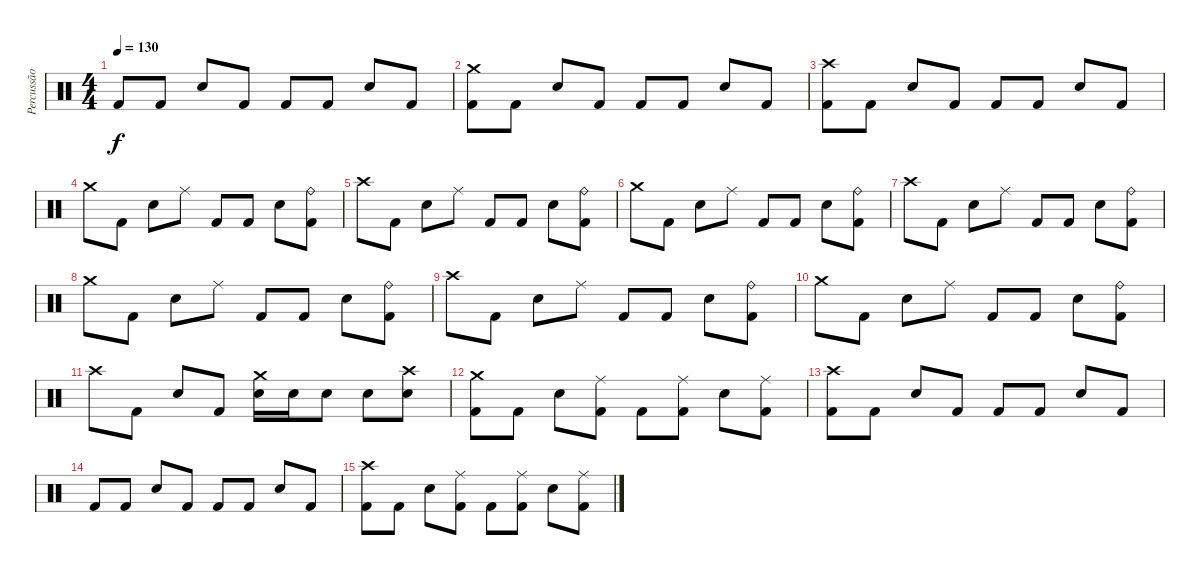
\track ("Percussão" "Percussão") {instrument percussion}
\staff {score}
\articulation defaults
\ts (4 4)
\tempo 130
\clef neutral
\ks c "Kick (hit) 2".8{dy f} "Kick (hit) 2".8 "Snare (hit) 2".8 "Kick (hit) 2".8 "Kick (hit) 2".8 "Kick (hit) 2".8 "Snare (hit) 2".8 "Kick (hit) 2".8
|
("Kick (hit) 2" "Crash medium (hit)").8 "Kick (hit) 2".8 "Snare (hit) 2".8 "Kick (hit) 2".8 "Kick (hit) 2".8 "Kick (hit) 2".8 "Snare (hit) 2".8 "Kick (hit) 2".8 |
("Kick (hit) 2" "Crash high (hit)").8 "Kick (hit) 2".8 "Snare (hit) 2".8 "Kick (hit) 2".8 "Kick (hit) 2".8 "Kick (hit) 2".8 "Snare (hit) 2".8 "Kick (hit) 2".8 |
"Crash medium (hit)".8 "Kick (hit) 2".8 "Snare (hit) 2".8 "Ride (middle)".8 "Kick (hit) 2".8 "Kick (hit) 2".8 "Snare (hit) 2".8 ("Kick (hit) 2" "Ride (bell)").8 |
"Crash high (hit)".8 "Kick (hit) 2".8 "Snare (hit) 2".8 "Ride (middle)".8 "Kick (hit) 2".8 "Kick (hit) 2".8 "Snare (hit) 2".8 ("Kick (hit) 2" "Ride (bell)").8 |
"Crash medium (hit)".8 "Kick (hit) 2".8 "Snare (hit) 2".8 "Ride (middle)".8 "Kick (hit) 2".8 "Kick (hit) 2".8 "Snare (hit) 2".8 ("Kick (hit) 2" "Ride (bell)").8 |
"Crash high (hit)".8 "Kick (hit) 2".8 "Snare (hit) 2".8 "Ride (middle)".8 "Kick (hit) 2".8 "Kick (hit) 2".8 "Snare (hit) 2".8 ("Kick (hit) 2" "Ride (bell)").8 |
"Crash medium (hit)".8 "Kick (hit) 2".8 "Snare (hit) 2".8 "Ride (middle)".8 "Kick (hit) 2".8 "Kick (hit) 2".8 "Snare (hit) 2".8 ("Kick (hit) 2" "Ride (bell)").8 |
"Crash high (hit)".8 "Kick (hit) 2".8 "Snare (hit) 2".8 "Ride (middle)".8 "Kick (hit) 2".8 "Kick (hit) 2".8 "Snare (hit) 2".8 ("Kick (hit) 2" "Ride (bell)").8 |
"Crash medium (hit)".8 "Kick (hit) 2".8 "Snare (hit) 2".8 "Ride (middle)".8 "Kick (hit) 2".8 "Kick (hit) 2".8 "Snare (hit) 2".8 ("Kick (hit) 2" "Ride (bell)").8 |
"Crash high (hit)".8 "Kick (hit) 2".8 "Snare (hit) 2".8 "Kick (hit) 2".8 ("Snare (hit) 2" "Crash medium (hit)").16 "Snare (hit) 2".16 "Snare (hit) 2".8 "Snare (hit) 2".8 ("Snare (hit) 2" "Crash high (hit)").8 |
("Kick (hit) 2" "Crash medium (hit)").8 "Kick (hit) 2".8 "Snare (hit) 2".8 ("Kick (hit) 2" "Ride (middle)").8 "Kick (hit) 2".8 ("Kick (hit) 2" "Ride (middle)").8 "Snare (hit) 2".8 ("Kick (hit) 2" "Ride (middle)").8 |
("Kick (hit) 2" "Crash high (hit)").8 "Kick (hit) 2".8 "Snare (hit) 2".8 "Kick (hit) 2".8 "Kick (hit) 2".8 "Kick (hit) 2".8 "Snare (hit) 2".8 "Kick (hit) 2".8 |
"Kick (hit) 2".8 "Kick (hit) 2".8 "Snare (hit) 2".8 "Kick (hit) 2".8 "Kick (hit) 2".8 "Kick (hit) 2".8 "Snare (hit) 2".8 "Kick (hit) 2".8 |
("Kick (hit) 2" "Crash high (hit)").8 "Kick (hit) 2".8 "Snare (hit) 2".8 ("Kick (hit) 2" "Ride (middle)").8 "Kick (hit) 2".8 ("Kick (hit) 2" "Ride (middle)").8 "Snare (hit) 2".8 ("Kick (hit) 2" "Ride (middle)").8
